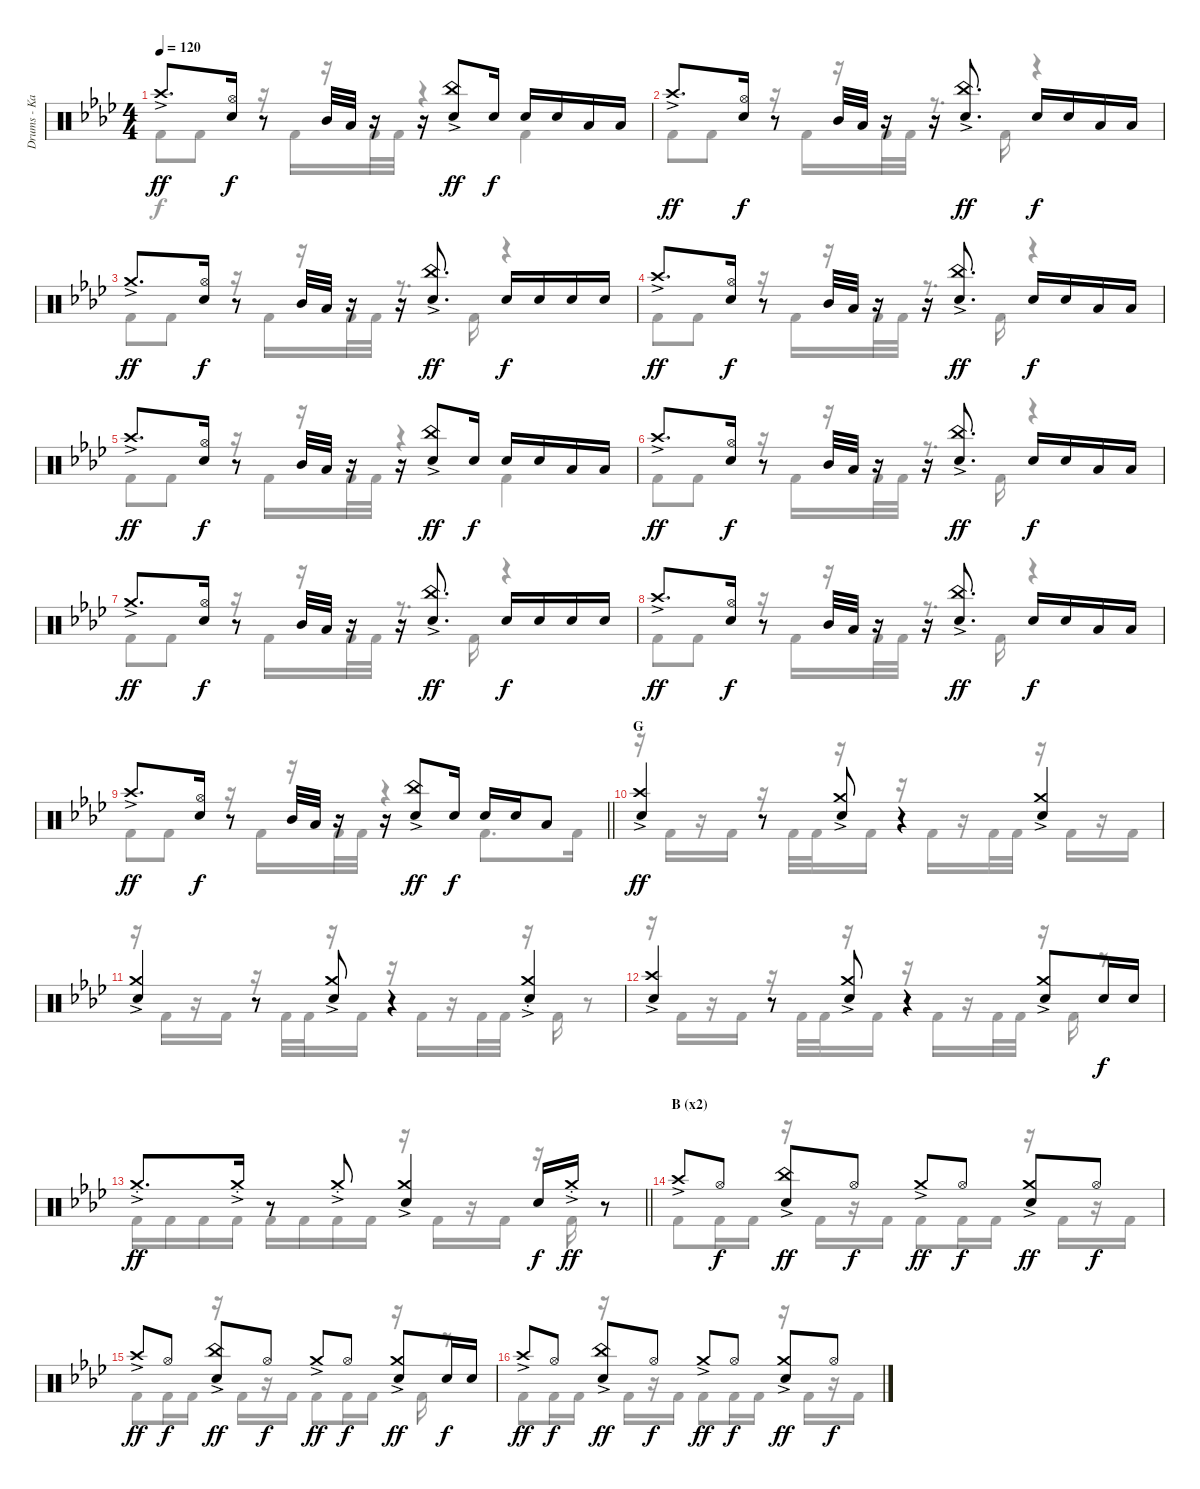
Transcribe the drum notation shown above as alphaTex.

\track ("Drums - Kai" "Drums - Ka") {instrument percussion}
\staff {score}
\articulation defaults
\voice
\ts (4 4)
\tempo 120
\clef neutral
\ks ab "Crash high (hit)"{ac}.8{d dy ff}
("Hi-Hat (open)" "Snare (hit) 2").16{dy f} r.8 "Mid Tom (hit)".32 "Low Tom (hit)".32 r.16 r.16 ("China (hit)"{ac} "Snare (hit) 2").8{dy ff} "Snare (hit) 2".16{dy f} "Snare (hit) 2".16 "Snare (hit) 2".16 "Low Tom (hit)".16 "Low Tom (hit)".16 |
"Crash high (hit)"{ac}.8{d dy ff} ("Hi-Hat (open)" "Snare (hit) 2").16{dy f} r.8 "Mid Tom (hit)".32 "Low Tom (hit)".32 r.16 r.16 ("China (hit)"{ac} "Snare (hit) 2").8{d dy ff} "Snare (hit) 2".16{dy f} "Snare (hit) 2".16 "Low Tom (hit)".16 "Low Tom (hit)".16 |
"Crash medium (hit)"{ac}.8{d dy ff} ("Hi-Hat (open)" "Snare (hit) 2").16{dy f} r.8 "Mid Tom (hit)".32 "Low Tom (hit)".32 r.16 r.16 ("China (hit)"{ac} "Snare (hit) 2").8{d dy ff} "Snare (hit) 2".16{dy f} "Snare (hit) 2".16 "Snare (hit) 2".16 "Snare (hit) 2".16 |
"Crash high (hit)"{ac}.8{d dy ff} ("Hi-Hat (open)" "Snare (hit) 2").16{dy f} r.8 "Mid Tom (hit)".32 "Low Tom (hit)".32 r.16 r.16 ("China (hit)"{ac} "Snare (hit) 2").8{d dy ff} "Snare (hit) 2".16{dy f} "Snare (hit) 2".16 "Low Tom (hit)".16 "Low Tom (hit)".16 |
"Crash high (hit)"{ac}.8{d dy ff} ("Hi-Hat (open)" "Snare (hit) 2").16{dy f} r.8 "Mid Tom (hit)".32 "Low Tom (hit)".32 r.16 r.16 ("China (hit)"{ac} "Snare (hit) 2").8{dy ff} "Snare (hit) 2".16{dy f} "Snare (hit) 2".16 "Snare (hit) 2".16 "Low Tom (hit)".16 "Low Tom (hit)".16 |
"Crash high (hit)"{ac}.8{d dy ff} ("Hi-Hat (open)" "Snare (hit) 2").16{dy f} r.8 "Mid Tom (hit)".32 "Low Tom (hit)".32 r.16 r.16 ("China (hit)"{ac} "Snare (hit) 2").8{d dy ff} "Snare (hit) 2".16{dy f} "Snare (hit) 2".16 "Low Tom (hit)".16 "Low Tom (hit)".16 |
"Crash medium (hit)"{ac}.8{d dy ff} ("Hi-Hat (open)" "Snare (hit) 2").16{dy f} r.8 "Mid Tom (hit)".32 "Low Tom (hit)".32 r.16 r.16 ("China (hit)"{ac} "Snare (hit) 2").8{d dy ff} "Snare (hit) 2".16{dy f} "Snare (hit) 2".16 "Snare (hit) 2".16 "Snare (hit) 2".16 |
"Crash high (hit)"{ac}.8{d dy ff} ("Hi-Hat (open)" "Snare (hit) 2").16{dy f} r.8 "Mid Tom (hit)".32 "Low Tom (hit)".32 r.16 r.16 ("China (hit)"{ac} "Snare (hit) 2").8{d dy ff} "Snare (hit) 2".16{dy f} "Snare (hit) 2".16 "Low Tom (hit)".16 "Low Tom (hit)".16 |
\barLineRight lightlight "Crash high (hit)"{ac}.8{d dy ff}
("Hi-Hat (open)" "Snare (hit) 2").16{dy f} r.8 "Mid Tom (hit)".32 "Low Tom (hit)".32 r.16 r.16 ("China (hit)"{ac} "Snare (hit) 2").8{dy ff} "Snare (hit) 2".16{dy f} "Snare (hit) 2".16 "Snare (hit) 2".16 "Low Tom (hit)".8 |
\section ("" "G")
("Crash high (hit)"{ac} "Snare (hit) 2").4{dy ff} r.8 ("Crash medium (hit)"{ac} "Snare (hit) 2").8 r.4 ("Crash medium (hit)"{ac} "Snare (hit) 2").4 |
("Crash medium (hit)"{ac} "Snare (hit) 2").4 r.8 ("Crash medium (hit)"{ac} "Snare (hit) 2").8 r.4 ("Crash medium (hit)"{ac st} "Snare (hit) 2").4 |
("Crash high (hit)"{ac} "Snare (hit) 2").4 r.8 ("Crash medium (hit)"{ac} "Snare (hit) 2").8 r.4 ("Crash medium (hit)"{ac} "Snare (hit) 2").8 "Snare (hit) 2".16{dy f} "Snare (hit) 2".16 |
\barLineRight lightlight "Crash medium (hit)"{ac st}.8{d dy ff} "Crash medium (hit)"{ac st}.16
r.8 "Crash medium (hit)"{ac st}.8 ("Crash medium (hit)"{ac} "Snare (hit) 2").4 "Snare (hit) 2".16{dy f} "Crash medium (hit)"{ac st}.16{dy ff} r.8 |
\section ("" "B (x2)")
"Crash high (hit)"{ac}.8 "Hi-Hat (open)".8{dy f} ("China (hit)"{ac} "Snare (hit) 2").8{dy ff} "Hi-Hat (open)".8{dy f} "Crash medium (hit)"{ac}.8{dy ff} "Hi-Hat (open)".8{dy f} ("Crash medium (hit)"{ac} "Snare (hit) 2").8{dy ff} "Hi-Hat (open)".8{dy f} |
"Crash high (hit)"{ac}.8{dy ff} "Hi-Hat (open)".8{dy f} ("China (hit)"{ac} "Snare (hit) 2").8{dy ff} "Hi-Hat (open)".8{dy f} "Crash medium (hit)"{ac}.8{dy ff} "Hi-Hat (open)".8{dy f} ("Crash medium (hit)"{ac} "Snare (hit) 2").8{dy ff} "Snare (hit) 2".16{dy f} "Snare (hit) 2".16 |
"Crash high (hit)"{ac}.8{dy ff} "Hi-Hat (open)".8{dy f} ("China (hit)"{ac} "Snare (hit) 2").8{dy ff} "Hi-Hat (open)".8{dy f} "Crash medium (hit)"{ac}.8{dy ff} "Hi-Hat (open)".8{dy f} ("Crash medium (hit)"{ac} "Snare (hit) 2").8{dy ff} "Hi-Hat (open)".8{dy f}
\voice
\clef neutral
\ottava regular
\simile none
\ks ab "Kick (hit) 2".8{dy f} "Kick (hit) 2".8
r.16 "Kick (hit) 2".16 r.16 "Kick (hit) 2".32 "Kick (hit) 2".32 r.4 "Kick (hit) 2".4 |
"Kick (hit) 2".8 "Kick (hit) 2".8 r.16 "Kick (hit) 2".16 r.16 "Kick (hit) 2".32 "Kick (hit) 2".32 r.8{d} "Kick (hit) 2".16 r.4 |
"Kick (hit) 2".8 "Kick (hit) 2".8 r.16 "Kick (hit) 2".16 r.16 "Kick (hit) 2".32 "Kick (hit) 2".32 r.8{d} "Kick (hit) 2".16 r.4 |
"Kick (hit) 2".8 "Kick (hit) 2".8 r.16 "Kick (hit) 2".16 r.16 "Kick (hit) 2".32 "Kick (hit) 2".32 r.8{d} "Kick (hit) 2".16 r.4 |
"Kick (hit) 2".8 "Kick (hit) 2".8 r.16 "Kick (hit) 2".16 r.16 "Kick (hit) 2".32 "Kick (hit) 2".32 r.4 "Kick (hit) 2".4 |
"Kick (hit) 2".8 "Kick (hit) 2".8 r.16 "Kick (hit) 2".16 r.16 "Kick (hit) 2".32 "Kick (hit) 2".32 r.8{d} "Kick (hit) 2".16 r.4 |
"Kick (hit) 2".8 "Kick (hit) 2".8 r.16 "Kick (hit) 2".16 r.16 "Kick (hit) 2".32 "Kick (hit) 2".32 r.8{d} "Kick (hit) 2".16 r.4 |
"Kick (hit) 2".8 "Kick (hit) 2".8 r.16 "Kick (hit) 2".16 r.16 "Kick (hit) 2".32 "Kick (hit) 2".32 r.8{d} "Kick (hit) 2".16 r.4 |
\barLineRight lightlight "Kick (hit) 2".8 "Kick (hit) 2".8
r.16 "Kick (hit) 2".16 r.16 "Kick (hit) 2".32 "Kick (hit) 2".32 r.4 "Kick (hit) 2".8{d} "Kick (hit) 2".16 |
r.16 "Kick (hit) 2".16 r.16 "Kick (hit) 2".16 r.16 "Kick (hit) 2".32 "Kick (hit) 2".32 r.16 "Kick (hit) 2".16 r.16 "Kick (hit) 2".16 r.16 "Kick (hit) 2".32 "Kick (hit) 2".32 r.16 "Kick (hit) 2".16 r.16 "Kick (hit) 2".16 |
r.16 "Kick (hit) 2".16 r.16 "Kick (hit) 2".16 r.16 "Kick (hit) 2".32 "Kick (hit) 2".32 r.16 "Kick (hit) 2".16 r.16 "Kick (hit) 2".16 r.16 "Kick (hit) 2".32 "Kick (hit) 2".32 r.16 "Kick (hit) 2".16 r.8 |
r.16 "Kick (hit) 2".16 r.16 "Kick (hit) 2".16 r.16 "Kick (hit) 2".32 "Kick (hit) 2".32 r.16 "Kick (hit) 2".16 r.16 "Kick (hit) 2".16 r.16 "Kick (hit) 2".32 "Kick (hit) 2".32 r.16 "Kick (hit) 2".16 r.8 |
\barLineRight lightlight "Kick (hit) 2".16 "Kick (hit) 2".16 "Kick (hit) 2".16 "Kick (hit) 2".16 "Kick (hit) 2".16 "Kick (hit) 2".16 "Kick (hit) 2".16 "Kick (hit) 2".16
r.16 "Kick (hit) 2".16 r.16 "Kick (hit) 2".16 r.16 "Kick (hit) 2".16 r.8 |
"Kick (hit) 2".8 "Kick (hit) 2".16 "Kick (hit) 2".16 r.16 "Kick (hit) 2".16 r.16 "Kick (hit) 2".16 "Kick (hit) 2".8 "Kick (hit) 2".16 "Kick (hit) 2".16 r.16 "Kick (hit) 2".16 r.16 "Kick (hit) 2".16 |
"Kick (hit) 2".8 "Kick (hit) 2".16 "Kick (hit) 2".16 r.16 "Kick (hit) 2".16 r.16 "Kick (hit) 2".16 "Kick (hit) 2".8 "Kick (hit) 2".16 "Kick (hit) 2".16 r.16 "Kick (hit) 2".16 r.8 |
"Kick (hit) 2".8 "Kick (hit) 2".16 "Kick (hit) 2".16 r.16 "Kick (hit) 2".16 r.16 "Kick (hit) 2".16 "Kick (hit) 2".8 "Kick (hit) 2".16 "Kick (hit) 2".16 r.16 "Kick (hit) 2".16 r.16 "Kick (hit) 2".16
